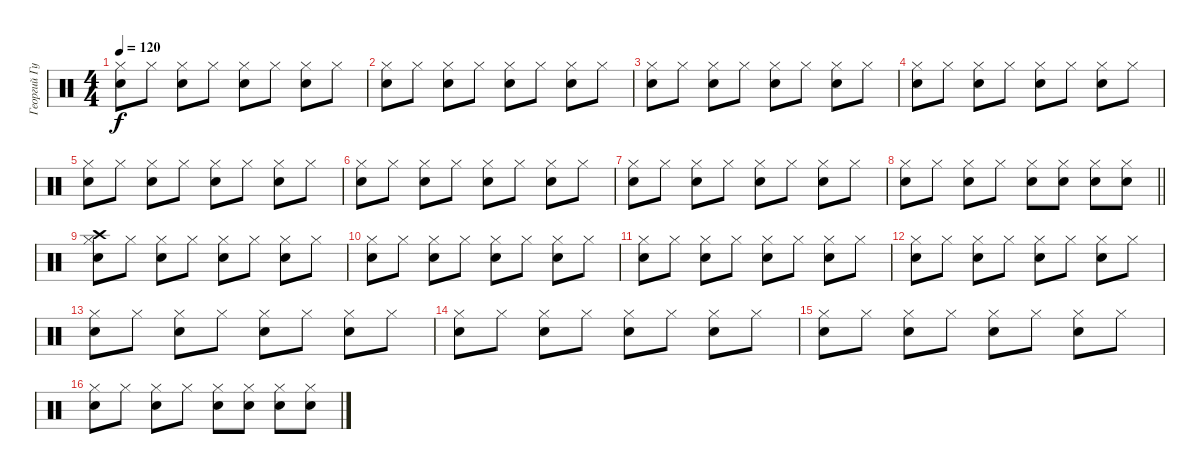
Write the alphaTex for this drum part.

\track ("Георгий Гурьянов" "Георгий Гу") {instrument percussion}
\staff {score}
\articulation defaults
\ts (4 4)
\tempo 120
\clef neutral
\ks c
("Hi-Hat (closed)" "Snare (hit) 2").8{dy f} "Hi-Hat (closed)".8 ("Hi-Hat (closed)" "Snare (hit) 2").8 "Hi-Hat (closed)".8 ("Hi-Hat (closed)" "Snare (hit) 2").8 "Hi-Hat (closed)".8 ("Hi-Hat (closed)" "Snare (hit) 2").8 "Hi-Hat (closed)".8 |
("Hi-Hat (closed)" "Snare (hit) 2").8 "Hi-Hat (closed)".8 ("Hi-Hat (closed)" "Snare (hit) 2").8 "Hi-Hat (closed)".8 ("Hi-Hat (closed)" "Snare (hit) 2").8 "Hi-Hat (closed)".8 ("Hi-Hat (closed)" "Snare (hit) 2").8 "Hi-Hat (closed)".8 |
("Hi-Hat (closed)" "Snare (hit) 2").8 "Hi-Hat (closed)".8 ("Hi-Hat (closed)" "Snare (hit) 2").8 "Hi-Hat (closed)".8 ("Hi-Hat (closed)" "Snare (hit) 2").8 "Hi-Hat (closed)".8 ("Hi-Hat (closed)" "Snare (hit) 2").8 "Hi-Hat (closed)".8 |
("Hi-Hat (closed)" "Snare (hit) 2").8 "Hi-Hat (closed)".8 ("Hi-Hat (closed)" "Snare (hit) 2").8 "Hi-Hat (closed)".8 ("Hi-Hat (closed)" "Snare (hit) 2").8 "Hi-Hat (closed)".8 ("Hi-Hat (closed)" "Snare (hit) 2").8 "Hi-Hat (closed)".8 |
("Hi-Hat (closed)" "Snare (hit) 2").8 "Hi-Hat (closed)".8 ("Hi-Hat (closed)" "Snare (hit) 2").8 "Hi-Hat (closed)".8 ("Hi-Hat (closed)" "Snare (hit) 2").8 "Hi-Hat (closed)".8 ("Hi-Hat (closed)" "Snare (hit) 2").8 "Hi-Hat (closed)".8 |
("Hi-Hat (closed)" "Snare (hit) 2").8 "Hi-Hat (closed)".8 ("Hi-Hat (closed)" "Snare (hit) 2").8 "Hi-Hat (closed)".8 ("Hi-Hat (closed)" "Snare (hit) 2").8 "Hi-Hat (closed)".8 ("Hi-Hat (closed)" "Snare (hit) 2").8 "Hi-Hat (closed)".8 |
("Hi-Hat (closed)" "Snare (hit) 2").8 "Hi-Hat (closed)".8 ("Hi-Hat (closed)" "Snare (hit) 2").8 "Hi-Hat (closed)".8 ("Hi-Hat (closed)" "Snare (hit) 2").8 "Hi-Hat (closed)".8 ("Hi-Hat (closed)" "Snare (hit) 2").8 "Hi-Hat (closed)".8 |
\barLineRight lightlight
("Hi-Hat (closed)" "Snare (hit) 2").8 "Hi-Hat (closed)".8 ("Hi-Hat (closed)" "Snare (hit) 2").8 "Hi-Hat (closed)".8 ("Hi-Hat (closed)" "Snare (hit) 2").8 ("Hi-Hat (closed)" "Snare (hit) 2").8 ("Hi-Hat (closed)" "Snare (hit) 2").8 ("Hi-Hat (closed)" "Snare (hit) 2").8 |
("Hi-Hat (closed)" "Crash high (hit)" "Snare (hit) 2").8 "Hi-Hat (closed)".8 ("Hi-Hat (closed)" "Snare (hit) 2").8 "Hi-Hat (closed)".8 ("Hi-Hat (closed)" "Snare (hit) 2").8 "Hi-Hat (closed)".8 ("Hi-Hat (closed)" "Snare (hit) 2").8 "Hi-Hat (closed)".8 |
("Hi-Hat (closed)" "Snare (hit) 2").8 "Hi-Hat (closed)".8 ("Hi-Hat (closed)" "Snare (hit) 2").8 "Hi-Hat (closed)".8 ("Hi-Hat (closed)" "Snare (hit) 2").8 "Hi-Hat (closed)".8 ("Hi-Hat (closed)" "Snare (hit) 2").8 "Hi-Hat (closed)".8 |
("Hi-Hat (closed)" "Snare (hit) 2").8 "Hi-Hat (closed)".8 ("Hi-Hat (closed)" "Snare (hit) 2").8 "Hi-Hat (closed)".8 ("Hi-Hat (closed)" "Snare (hit) 2").8 "Hi-Hat (closed)".8 ("Hi-Hat (closed)" "Snare (hit) 2").8 "Hi-Hat (closed)".8 |
("Hi-Hat (closed)" "Snare (hit) 2").8 "Hi-Hat (closed)".8 ("Hi-Hat (closed)" "Snare (hit) 2").8 "Hi-Hat (closed)".8 ("Hi-Hat (closed)" "Snare (hit) 2").8 "Hi-Hat (closed)".8 ("Hi-Hat (closed)" "Snare (hit) 2").8 "Hi-Hat (closed)".8 |
("Hi-Hat (closed)" "Snare (hit) 2").8 "Hi-Hat (closed)".8 ("Hi-Hat (closed)" "Snare (hit) 2").8 "Hi-Hat (closed)".8 ("Hi-Hat (closed)" "Snare (hit) 2").8 "Hi-Hat (closed)".8 ("Hi-Hat (closed)" "Snare (hit) 2").8 "Hi-Hat (closed)".8 |
("Hi-Hat (closed)" "Snare (hit) 2").8 "Hi-Hat (closed)".8 ("Hi-Hat (closed)" "Snare (hit) 2").8 "Hi-Hat (closed)".8 ("Hi-Hat (closed)" "Snare (hit) 2").8 "Hi-Hat (closed)".8 ("Hi-Hat (closed)" "Snare (hit) 2").8 "Hi-Hat (closed)".8 |
("Hi-Hat (closed)" "Snare (hit) 2").8 "Hi-Hat (closed)".8 ("Hi-Hat (closed)" "Snare (hit) 2").8 "Hi-Hat (closed)".8 ("Hi-Hat (closed)" "Snare (hit) 2").8 "Hi-Hat (closed)".8 ("Hi-Hat (closed)" "Snare (hit) 2").8 "Hi-Hat (closed)".8 |
("Hi-Hat (closed)" "Snare (hit) 2").8 "Hi-Hat (closed)".8 ("Hi-Hat (closed)" "Snare (hit) 2").8 "Hi-Hat (closed)".8 ("Hi-Hat (closed)" "Snare (hit) 2").8 ("Hi-Hat (closed)" "Snare (hit) 2").8 ("Hi-Hat (closed)" "Snare (hit) 2").8 ("Hi-Hat (closed)" "Snare (hit) 2").8
